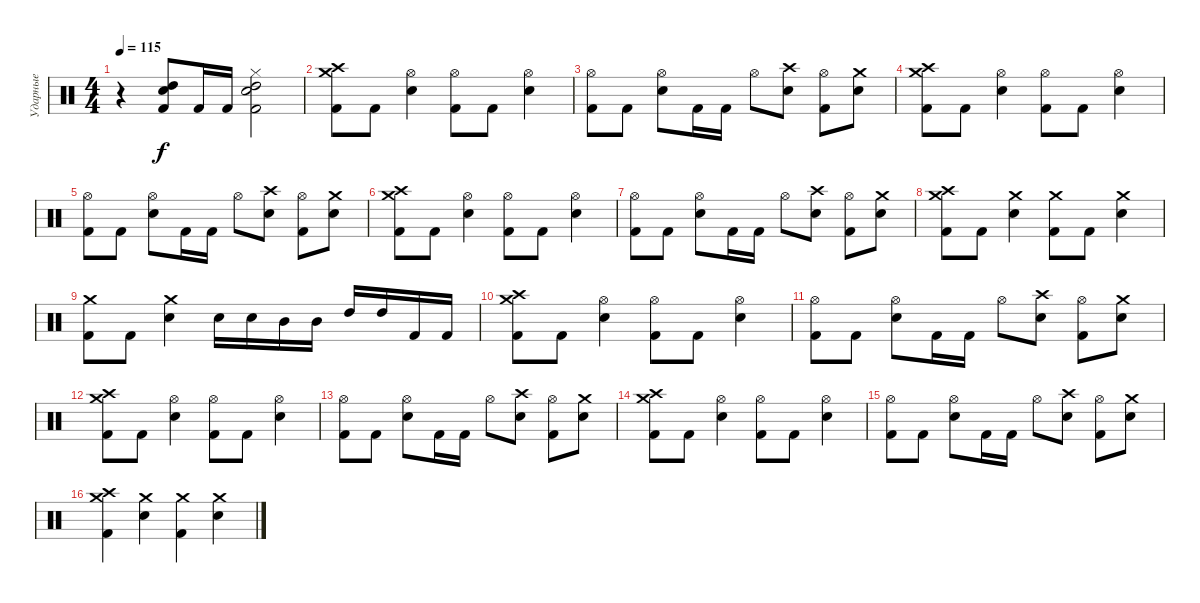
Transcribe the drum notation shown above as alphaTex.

\track ("Ударные" "Ударные") {instrument percussion}
\staff {score}
\articulation defaults
\ts (4 4)
\tempo 115
\clef neutral
\ks c
r.4{dy f} ("High Tom (hit)" "Snare (hit) 2" "Kick (hit) 2").8 "Kick (hit) 2".16 "Kick (hit) 2".16 ("High Tom (hit)" "Snare (hit) 2" "Hi-Hat (closed)" "Kick (hit) 2").2 |
("Crash medium (hit)" "Crash high (hit)" "Kick (hit) 2").8 "Kick (hit) 2".8 ("Snare (hit) 2" "Hi-Hat (open)").4 ("Hi-Hat (open)" "Kick (hit) 2").8 "Kick (hit) 2".8 ("Snare (hit) 2" "Hi-Hat (open)").4 |
("Hi-Hat (open)" "Kick (hit) 2").8 "Kick (hit) 2".8 ("Snare (hit) 2" "Hi-Hat (open)").8 "Kick (hit) 2".16 "Kick (hit) 2".16 "Hi-Hat (open)".8 ("Crash high (hit)" "Snare (hit) 2").8 ("Hi-Hat (open)" "Kick (hit) 2").8 ("Crash medium (hit)" "Snare (hit) 2").8 |
("Crash medium (hit)" "Crash high (hit)" "Kick (hit) 2").8 "Kick (hit) 2".8 ("Snare (hit) 2" "Hi-Hat (open)").4 ("Hi-Hat (open)" "Kick (hit) 2").8 "Kick (hit) 2".8 ("Snare (hit) 2" "Hi-Hat (open)").4 |
("Hi-Hat (open)" "Kick (hit) 2").8 "Kick (hit) 2".8 ("Snare (hit) 2" "Hi-Hat (open)").8 "Kick (hit) 2".16 "Kick (hit) 2".16 "Hi-Hat (open)".8 ("Crash high (hit)" "Snare (hit) 2").8 ("Hi-Hat (open)" "Kick (hit) 2").8 ("Crash medium (hit)" "Snare (hit) 2").8 |
("Crash medium (hit)" "Crash high (hit)" "Kick (hit) 2").8 "Kick (hit) 2".8 ("Snare (hit) 2" "Hi-Hat (open)").4 ("Hi-Hat (open)" "Kick (hit) 2").8 "Kick (hit) 2".8 ("Snare (hit) 2" "Hi-Hat (open)").4 |
("Hi-Hat (open)" "Kick (hit) 2").8 "Kick (hit) 2".8 ("Snare (hit) 2" "Hi-Hat (open)").8 "Kick (hit) 2".16 "Kick (hit) 2".16 "Hi-Hat (open)".8 ("Crash high (hit)" "Snare (hit) 2").8 ("Hi-Hat (open)" "Kick (hit) 2").8 ("Crash medium (hit)" "Snare (hit) 2").8 |
("Crash medium (hit)" "Crash high (hit)" "Kick (hit) 2").8 "Kick (hit) 2".8 ("Snare (hit) 2" "Crash medium (hit)").4 ("Crash medium (hit)" "Kick (hit) 2").8 "Kick (hit) 2".8 ("Snare (hit) 2" "Crash medium (hit)").4 |
("Crash medium (hit)" "Kick (hit) 2").8 "Kick (hit) 2".8 ("Snare (hit) 2" "Crash medium (hit)").4 "Snare (hit) 2".16 "Snare (hit) 2".16 "Mid Tom (hit)".16 "Mid Tom (hit)".16 "High Tom (hit)".16 "High Tom (hit)".16 "Kick (hit) 2".16 "Kick (hit) 2".16 |
("Crash medium (hit)" "Crash high (hit)" "Kick (hit) 2").8 "Kick (hit) 2".8 ("Snare (hit) 2" "Hi-Hat (open)").4 ("Hi-Hat (open)" "Kick (hit) 2").8 "Kick (hit) 2".8 ("Snare (hit) 2" "Hi-Hat (open)").4 |
("Hi-Hat (open)" "Kick (hit) 2").8 "Kick (hit) 2".8 ("Snare (hit) 2" "Hi-Hat (open)").8 "Kick (hit) 2".16 "Kick (hit) 2".16 "Hi-Hat (open)".8 ("Crash high (hit)" "Snare (hit) 2").8 ("Hi-Hat (open)" "Kick (hit) 2").8 ("Crash medium (hit)" "Snare (hit) 2").8 |
("Crash medium (hit)" "Crash high (hit)" "Kick (hit) 2").8 "Kick (hit) 2".8 ("Snare (hit) 2" "Hi-Hat (open)").4 ("Hi-Hat (open)" "Kick (hit) 2").8 "Kick (hit) 2".8 ("Snare (hit) 2" "Hi-Hat (open)").4 |
("Hi-Hat (open)" "Kick (hit) 2").8 "Kick (hit) 2".8 ("Snare (hit) 2" "Hi-Hat (open)").8 "Kick (hit) 2".16 "Kick (hit) 2".16 "Hi-Hat (open)".8 ("Crash high (hit)" "Snare (hit) 2").8 ("Hi-Hat (open)" "Kick (hit) 2").8 ("Crash medium (hit)" "Snare (hit) 2").8 |
("Crash medium (hit)" "Crash high (hit)" "Kick (hit) 2").8 "Kick (hit) 2".8 ("Snare (hit) 2" "Hi-Hat (open)").4 ("Hi-Hat (open)" "Kick (hit) 2").8 "Kick (hit) 2".8 ("Snare (hit) 2" "Hi-Hat (open)").4 |
("Hi-Hat (open)" "Kick (hit) 2").8 "Kick (hit) 2".8 ("Snare (hit) 2" "Hi-Hat (open)").8 "Kick (hit) 2".16 "Kick (hit) 2".16 "Hi-Hat (open)".8 ("Crash high (hit)" "Snare (hit) 2").8 ("Hi-Hat (open)" "Kick (hit) 2").8 ("Crash medium (hit)" "Snare (hit) 2").8 |
("Crash medium (hit)" "Crash high (hit)" "Kick (hit) 2").4 ("Snare (hit) 2" "Crash medium (hit)").4 ("Crash medium (hit)" "Kick (hit) 2").4 ("Snare (hit) 2" "Crash medium (hit)").4
